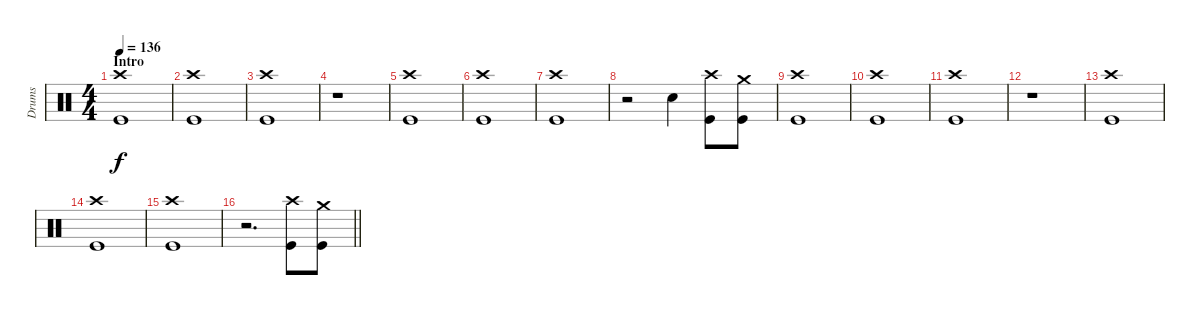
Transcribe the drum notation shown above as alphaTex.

\track ("Drums" "Drums") {instrument percussion}
\staff {score}
\articulation defaults
\ts (4 4)
\section ("" "Intro")
\tempo 136
\clef neutral
\ks c
("Crash high (hit)" "Kick (hit)").1{dy f} |
("Crash high (hit)" "Kick (hit)").1 |
("Crash high (hit)" "Kick (hit)").1 |
r.1 |
("Crash high (hit)" "Kick (hit)").1 |
("Crash high (hit)" "Kick (hit)").1 |
("Crash high (hit)" "Kick (hit)").1 |
r.2 "Snare (hit) 2".4 ("Crash high (hit)" "Kick (hit)").8 ("Crash medium (hit)" "Kick (hit)").8 |
("Crash high (hit)" "Kick (hit)").1 |
("Crash high (hit)" "Kick (hit)").1 |
("Crash high (hit)" "Kick (hit)").1 |
r.1 |
("Crash high (hit)" "Kick (hit)").1 |
("Crash high (hit)" "Kick (hit)").1 |
("Crash high (hit)" "Kick (hit)").1 |
\barLineRight lightlight
r.2{d} ("Crash high (hit)" "Kick (hit)").8 ("Crash medium (hit)" "Kick (hit)").8
